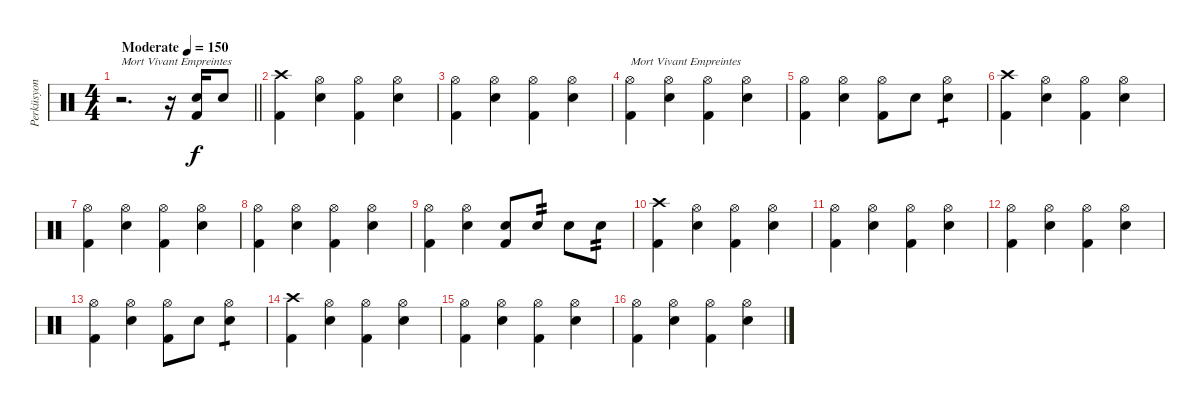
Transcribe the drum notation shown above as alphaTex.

\track ("Perküsyon" "Perküsyon") {instrument percussion}
\staff {score}
\articulation defaults
\ts (4 4)
\tempo (150 "Moderate")
\clef neutral
\barLineRight lightlight
\ks c
r.2{d txt "Mort Vivant Empreintes" dy f} r.16 ("Snare (hit) 2" "Kick (hit) 2").16 "Electric Snare (hit)".8 |
("Crash high (hit)" "Kick (hit) 2").4 ("Hi-Hat (open)" "Snare (hit) 2").4 ("Hi-Hat (open)" "Kick (hit) 2").4 ("Hi-Hat (open)" "Snare (hit) 2").4 |
("Hi-Hat (open)" "Kick (hit) 2").4 ("Hi-Hat (open)" "Snare (hit) 2").4 ("Hi-Hat (open)" "Kick (hit) 2").4 ("Hi-Hat (open)" "Snare (hit) 2").4 |
("Hi-Hat (open)" "Kick (hit) 2").4{txt "Mort Vivant Empreintes"} ("Hi-Hat (open)" "Snare (hit) 2").4 ("Hi-Hat (open)" "Kick (hit) 2").4 ("Hi-Hat (open)" "Snare (hit) 2").4 |
("Hi-Hat (open)" "Kick (hit) 2").4 ("Hi-Hat (open)" "Snare (hit) 2").4 ("Hi-Hat (open)" "Kick (hit) 2").8 "Snare (hit) 2".8 ("Hi-Hat (open)" "Snare (hit) 2").4{tp 1} |
("Crash high (hit)" "Kick (hit) 2").4 ("Hi-Hat (open)" "Snare (hit) 2").4 ("Hi-Hat (open)" "Kick (hit) 2").4 ("Hi-Hat (open)" "Snare (hit) 2").4 |
("Hi-Hat (open)" "Kick (hit) 2").4 ("Hi-Hat (open)" "Snare (hit) 2").4 ("Hi-Hat (open)" "Kick (hit) 2").4 ("Hi-Hat (open)" "Snare (hit) 2").4 |
("Hi-Hat (open)" "Kick (hit) 2").4 ("Hi-Hat (open)" "Snare (hit) 2").4 ("Hi-Hat (open)" "Kick (hit) 2").4 ("Hi-Hat (open)" "Snare (hit) 2").4 |
("Hi-Hat (open)" "Kick (hit) 2").4 ("Hi-Hat (open)" "Snare (hit) 2").4 ("Snare (hit) 2" "Kick (hit) 2").8 "Snare (hit) 2".8{tp 2} "Snare (hit) 2".8 "Snare (hit) 2".8{tp 2} |
("Crash high (hit)" "Kick (hit) 2").4 ("Hi-Hat (open)" "Snare (hit) 2").4 ("Hi-Hat (open)" "Kick (hit) 2").4 ("Hi-Hat (open)" "Snare (hit) 2").4 |
("Hi-Hat (open)" "Kick (hit) 2").4 ("Hi-Hat (open)" "Snare (hit) 2").4 ("Hi-Hat (open)" "Kick (hit) 2").4 ("Hi-Hat (open)" "Snare (hit) 2").4 |
("Hi-Hat (open)" "Kick (hit) 2").4 ("Hi-Hat (open)" "Snare (hit) 2").4 ("Hi-Hat (open)" "Kick (hit) 2").4 ("Hi-Hat (open)" "Snare (hit) 2").4 |
("Hi-Hat (open)" "Kick (hit) 2").4 ("Hi-Hat (open)" "Snare (hit) 2").4 ("Hi-Hat (open)" "Kick (hit) 2").8 "Snare (hit) 2".8 ("Hi-Hat (open)" "Snare (hit) 2").4{tp 1} |
("Crash high (hit)" "Kick (hit) 2").4 ("Hi-Hat (open)" "Snare (hit) 2").4 ("Hi-Hat (open)" "Kick (hit) 2").4 ("Hi-Hat (open)" "Snare (hit) 2").4 |
("Hi-Hat (open)" "Kick (hit) 2").4 ("Hi-Hat (open)" "Snare (hit) 2").4 ("Hi-Hat (open)" "Kick (hit) 2").4 ("Hi-Hat (open)" "Snare (hit) 2").4 |
("Hi-Hat (open)" "Kick (hit) 2").4 ("Hi-Hat (open)" "Snare (hit) 2").4 ("Hi-Hat (open)" "Kick (hit) 2").4 ("Hi-Hat (open)" "Snare (hit) 2").4
